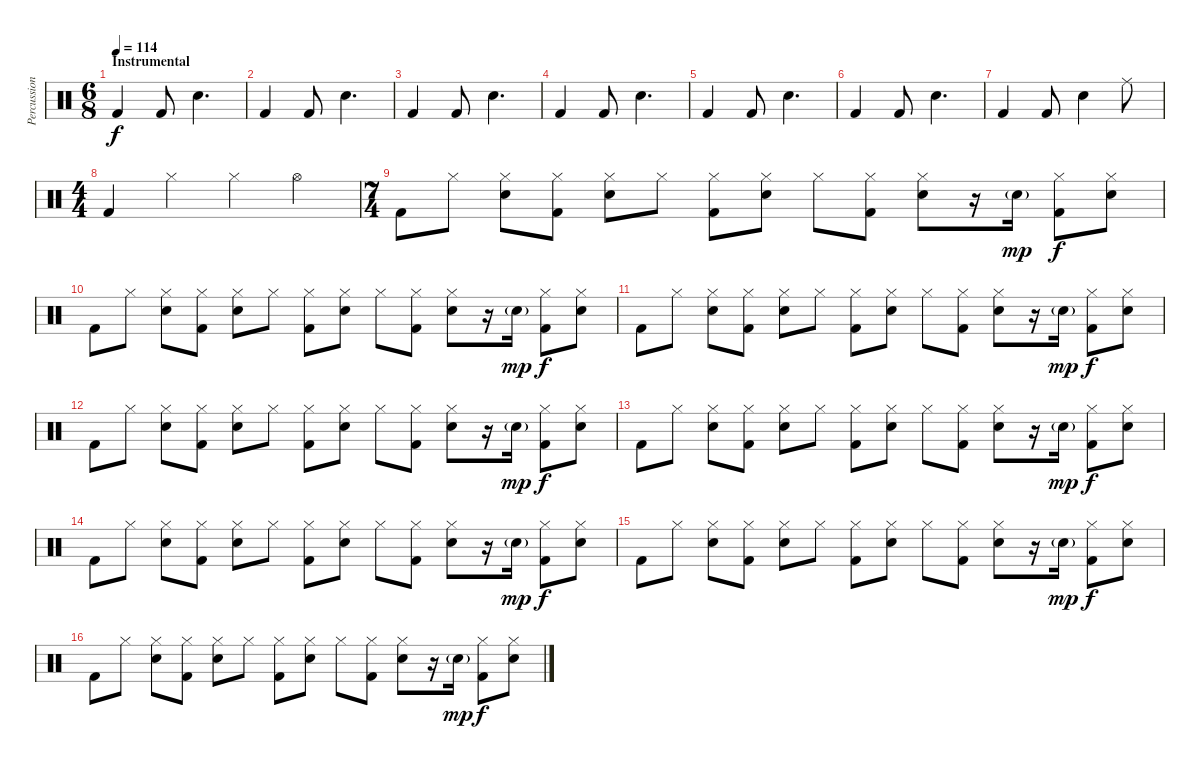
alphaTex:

\track ("Percussion" "Percussion") {instrument percussion}
\staff {score}
\articulation defaults
\ts (6 8)
\section ("" "Instrumental")
\tempo 114
\clef neutral
\ks c "Kick (hit) 2".4{dy f} "Kick (hit) 2".8 "Snare (hit) 2".4{d}
|
"Kick (hit) 2".4 "Kick (hit) 2".8 "Snare (hit) 2".4{d} |
"Kick (hit) 2".4 "Kick (hit) 2".8 "Snare (hit) 2".4{d} |
"Kick (hit) 2".4 "Kick (hit) 2".8 "Snare (hit) 2".4{d} |
"Kick (hit) 2".4 "Kick (hit) 2".8 "Snare (hit) 2".4{d} |
"Kick (hit) 2".4 "Kick (hit) 2".8 "Snare (hit) 2".4{d} |
"Kick (hit) 2".4 "Kick (hit) 2".8 "Snare (hit) 2".4 "Ride (middle)".8 |
\ts (4 4)
"Kick (hit) 2".4 "Hi-Hat (closed)".4 "Hi-Hat (closed)".4 "Hi-Hat (open)".4 |
\ts (7 4)
"Kick (hit) 2".8 "Hi-Hat (closed)".8 ("Hi-Hat (closed)" "Snare (hit) 2").8 ("Hi-Hat (closed)" "Kick (hit) 2").8 ("Hi-Hat (closed)" "Snare (hit) 2").8 "Hi-Hat (closed)".8 ("Hi-Hat (closed)" "Kick (hit) 2").8 ("Hi-Hat (closed)" "Snare (hit) 2").8 "Hi-Hat (closed)".8 ("Hi-Hat (closed)" "Kick (hit) 2").8 ("Hi-Hat (closed)" "Snare (hit) 2").8 r.16 "Snare (hit) 2"{g}.16{dy mp} ("Hi-Hat (closed)" "Kick (hit) 2").8{dy f} ("Hi-Hat (closed)" "Snare (hit) 2").8 |
"Kick (hit) 2".8 "Hi-Hat (closed)".8 ("Hi-Hat (closed)" "Snare (hit) 2").8 ("Hi-Hat (closed)" "Kick (hit) 2").8 ("Hi-Hat (closed)" "Snare (hit) 2").8 "Hi-Hat (closed)".8 ("Hi-Hat (closed)" "Kick (hit) 2").8 ("Hi-Hat (closed)" "Snare (hit) 2").8 "Hi-Hat (closed)".8 ("Hi-Hat (closed)" "Kick (hit) 2").8 ("Hi-Hat (closed)" "Snare (hit) 2").8 r.16 "Snare (hit) 2"{g}.16{dy mp} ("Hi-Hat (closed)" "Kick (hit) 2").8{dy f} ("Hi-Hat (closed)" "Snare (hit) 2").8 |
"Kick (hit) 2".8 "Hi-Hat (closed)".8 ("Hi-Hat (closed)" "Snare (hit) 2").8 ("Hi-Hat (closed)" "Kick (hit) 2").8 ("Hi-Hat (closed)" "Snare (hit) 2").8 "Hi-Hat (closed)".8 ("Hi-Hat (closed)" "Kick (hit) 2").8 ("Hi-Hat (closed)" "Snare (hit) 2").8 "Hi-Hat (closed)".8 ("Hi-Hat (closed)" "Kick (hit) 2").8 ("Hi-Hat (closed)" "Snare (hit) 2").8 r.16 "Snare (hit) 2"{g}.16{dy mp} ("Hi-Hat (closed)" "Kick (hit) 2").8{dy f} ("Hi-Hat (closed)" "Snare (hit) 2").8 |
"Kick (hit) 2".8 "Hi-Hat (closed)".8 ("Hi-Hat (closed)" "Snare (hit) 2").8 ("Hi-Hat (closed)" "Kick (hit) 2").8 ("Hi-Hat (closed)" "Snare (hit) 2").8 "Hi-Hat (closed)".8 ("Hi-Hat (closed)" "Kick (hit) 2").8 ("Hi-Hat (closed)" "Snare (hit) 2").8 "Hi-Hat (closed)".8 ("Hi-Hat (closed)" "Kick (hit) 2").8 ("Hi-Hat (closed)" "Snare (hit) 2").8 r.16 "Snare (hit) 2"{g}.16{dy mp} ("Hi-Hat (closed)" "Kick (hit) 2").8{dy f} ("Hi-Hat (closed)" "Snare (hit) 2").8 |
"Kick (hit) 2".8 "Hi-Hat (closed)".8 ("Hi-Hat (closed)" "Snare (hit) 2").8 ("Hi-Hat (closed)" "Kick (hit) 2").8 ("Hi-Hat (closed)" "Snare (hit) 2").8 "Hi-Hat (closed)".8 ("Hi-Hat (closed)" "Kick (hit) 2").8 ("Hi-Hat (closed)" "Snare (hit) 2").8 "Hi-Hat (closed)".8 ("Hi-Hat (closed)" "Kick (hit) 2").8 ("Hi-Hat (closed)" "Snare (hit) 2").8 r.16 "Snare (hit) 2"{g}.16{dy mp} ("Hi-Hat (closed)" "Kick (hit) 2").8{dy f} ("Hi-Hat (closed)" "Snare (hit) 2").8 |
"Kick (hit) 2".8 "Hi-Hat (closed)".8 ("Hi-Hat (closed)" "Snare (hit) 2").8 ("Hi-Hat (closed)" "Kick (hit) 2").8 ("Hi-Hat (closed)" "Snare (hit) 2").8 "Hi-Hat (closed)".8 ("Hi-Hat (closed)" "Kick (hit) 2").8 ("Hi-Hat (closed)" "Snare (hit) 2").8 "Hi-Hat (closed)".8 ("Hi-Hat (closed)" "Kick (hit) 2").8 ("Hi-Hat (closed)" "Snare (hit) 2").8 r.16 "Snare (hit) 2"{g}.16{dy mp} ("Hi-Hat (closed)" "Kick (hit) 2").8{dy f} ("Hi-Hat (closed)" "Snare (hit) 2").8 |
"Kick (hit) 2".8 "Hi-Hat (closed)".8 ("Hi-Hat (closed)" "Snare (hit) 2").8 ("Hi-Hat (closed)" "Kick (hit) 2").8 ("Hi-Hat (closed)" "Snare (hit) 2").8 "Hi-Hat (closed)".8 ("Hi-Hat (closed)" "Kick (hit) 2").8 ("Hi-Hat (closed)" "Snare (hit) 2").8 "Hi-Hat (closed)".8 ("Hi-Hat (closed)" "Kick (hit) 2").8 ("Hi-Hat (closed)" "Snare (hit) 2").8 r.16 "Snare (hit) 2"{g}.16{dy mp} ("Hi-Hat (closed)" "Kick (hit) 2").8{dy f} ("Hi-Hat (closed)" "Snare (hit) 2").8 |
"Kick (hit) 2".8 "Hi-Hat (closed)".8 ("Hi-Hat (closed)" "Snare (hit) 2").8 ("Hi-Hat (closed)" "Kick (hit) 2").8 ("Hi-Hat (closed)" "Snare (hit) 2").8 "Hi-Hat (closed)".8 ("Hi-Hat (closed)" "Kick (hit) 2").8 ("Hi-Hat (closed)" "Snare (hit) 2").8 "Hi-Hat (closed)".8 ("Hi-Hat (closed)" "Kick (hit) 2").8 ("Hi-Hat (closed)" "Snare (hit) 2").8 r.16 "Snare (hit) 2"{g}.16{dy mp} ("Hi-Hat (closed)" "Kick (hit) 2").8{dy f} ("Hi-Hat (closed)" "Snare (hit) 2").8
